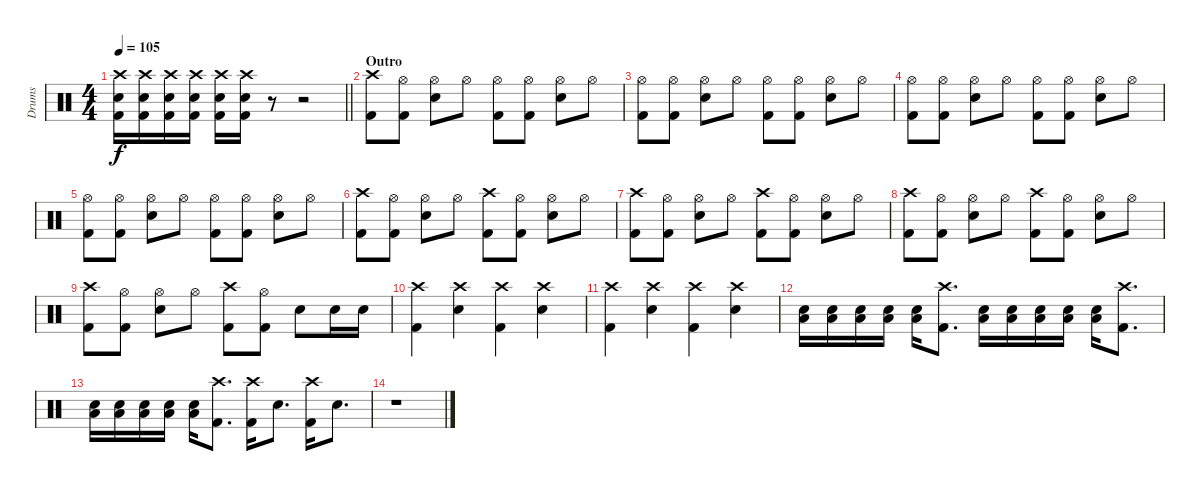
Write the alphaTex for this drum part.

\track ("Drums" "Drums") {instrument percussion}
\staff {score}
\articulation defaults
\ts (4 4)
\tempo 105
\clef neutral
\barLineRight lightlight
\ks c
("Crash high (hit)" "Electric Snare (hit)" "Kick (hit) 2").16{dy f} ("Crash high (hit)" "Electric Snare (hit)" "Kick (hit) 2").16 ("Crash high (hit)" "Electric Snare (hit)" "Kick (hit) 2").16 ("Crash high (hit)" "Electric Snare (hit)" "Kick (hit) 2").16 ("Crash high (hit)" "Electric Snare (hit)" "Kick (hit) 2").16 ("Crash high (hit)" "Electric Snare (hit)" "Kick (hit) 2").16 r.8 r.2 |
\section ("" "Outro")
("Crash high (hit)" "Kick (hit) 2").8 ("Hi-Hat (open)" "Kick (hit) 2").8 ("Hi-Hat (open)" "Electric Snare (hit)").8 "Hi-Hat (open)".8 ("Hi-Hat (open)" "Kick (hit) 2").8 ("Hi-Hat (open)" "Kick (hit) 2").8 ("Hi-Hat (open)" "Electric Snare (hit)").8 "Hi-Hat (open)".8 |
("Hi-Hat (open)" "Kick (hit) 2").8 ("Hi-Hat (open)" "Kick (hit) 2").8 ("Hi-Hat (open)" "Electric Snare (hit)").8 "Hi-Hat (open)".8 ("Hi-Hat (open)" "Kick (hit) 2").8 ("Hi-Hat (open)" "Kick (hit) 2").8 ("Hi-Hat (open)" "Electric Snare (hit)").8 "Hi-Hat (open)".8 |
("Hi-Hat (open)" "Kick (hit) 2").8 ("Hi-Hat (open)" "Kick (hit) 2").8 ("Hi-Hat (open)" "Electric Snare (hit)").8 "Hi-Hat (open)".8 ("Hi-Hat (open)" "Kick (hit) 2").8 ("Hi-Hat (open)" "Kick (hit) 2").8 ("Hi-Hat (open)" "Electric Snare (hit)").8 "Hi-Hat (open)".8 |
("Hi-Hat (open)" "Kick (hit) 2").8 ("Hi-Hat (open)" "Kick (hit) 2").8 ("Hi-Hat (open)" "Electric Snare (hit)").8 "Hi-Hat (open)".8 ("Hi-Hat (open)" "Kick (hit) 2").8 ("Hi-Hat (open)" "Kick (hit) 2").8 ("Hi-Hat (open)" "Electric Snare (hit)").8 "Hi-Hat (open)".8 |
("Crash high (hit)" "Kick (hit) 2").8 ("Hi-Hat (open)" "Kick (hit) 2").8 ("Hi-Hat (open)" "Electric Snare (hit)").8 "Hi-Hat (open)".8 ("Crash high (hit)" "Kick (hit) 2").8 ("Hi-Hat (open)" "Kick (hit) 2").8 ("Hi-Hat (open)" "Electric Snare (hit)").8 "Hi-Hat (open)".8 |
("Crash high (hit)" "Kick (hit) 2").8 ("Hi-Hat (open)" "Kick (hit) 2").8 ("Hi-Hat (open)" "Electric Snare (hit)").8 "Hi-Hat (open)".8 ("Crash high (hit)" "Kick (hit) 2").8 ("Hi-Hat (open)" "Kick (hit) 2").8 ("Hi-Hat (open)" "Electric Snare (hit)").8 "Hi-Hat (open)".8 |
("Crash high (hit)" "Kick (hit) 2").8 ("Hi-Hat (open)" "Kick (hit) 2").8 ("Hi-Hat (open)" "Electric Snare (hit)").8 "Hi-Hat (open)".8 ("Crash high (hit)" "Kick (hit) 2").8 ("Hi-Hat (open)" "Kick (hit) 2").8 ("Hi-Hat (open)" "Electric Snare (hit)").8 "Hi-Hat (open)".8 |
("Crash high (hit)" "Kick (hit) 2").8 ("Hi-Hat (open)" "Kick (hit) 2").8 ("Hi-Hat (open)" "Electric Snare (hit)").8 "Hi-Hat (open)".8 ("Crash high (hit)" "Kick (hit) 2").8 ("Hi-Hat (open)" "Kick (hit) 2").8 "Electric Snare (hit)".8 "Electric Snare (hit)".16 "Electric Snare (hit)".16 |
("Crash high (hit)" "Kick (hit) 2").4 ("Crash high (hit)" "Electric Snare (hit)").4 ("Crash high (hit)" "Kick (hit) 2").4 ("Crash high (hit)" "Electric Snare (hit)").4 |
("Crash high (hit)" "Kick (hit) 2").4 ("Crash high (hit)" "Electric Snare (hit)").4 ("Crash high (hit)" "Kick (hit) 2").4 ("Crash high (hit)" "Electric Snare (hit)").4 |
("Electric Snare (hit)" "Low Tom (hit)").16 ("Electric Snare (hit)" "Low Tom (hit)").16 ("Electric Snare (hit)" "Low Tom (hit)").16 ("Electric Snare (hit)" "Low Tom (hit)").16 ("Electric Snare (hit)" "Low Tom (hit)").16 ("Crash high (hit)" "Kick (hit) 2").8{d} ("Electric Snare (hit)" "Low Tom (hit)").16 ("Electric Snare (hit)" "Low Tom (hit)").16 ("Electric Snare (hit)" "Low Tom (hit)").16 ("Electric Snare (hit)" "Low Tom (hit)").16 ("Electric Snare (hit)" "Low Tom (hit)").16 ("Crash high (hit)" "Kick (hit) 2").8{d} |
("Electric Snare (hit)" "Low Tom (hit)").16 ("Electric Snare (hit)" "Low Tom (hit)").16 ("Electric Snare (hit)" "Low Tom (hit)").16 ("Electric Snare (hit)" "Low Tom (hit)").16 ("Electric Snare (hit)" "Low Tom (hit)").16 ("Crash high (hit)" "Kick (hit) 2").8{d} ("Crash high (hit)" "Kick (hit) 2").16 "Electric Snare (hit)".8{d} ("Crash high (hit)" "Kick (hit) 2").16 "Electric Snare (hit)".8{d} |
r.1
